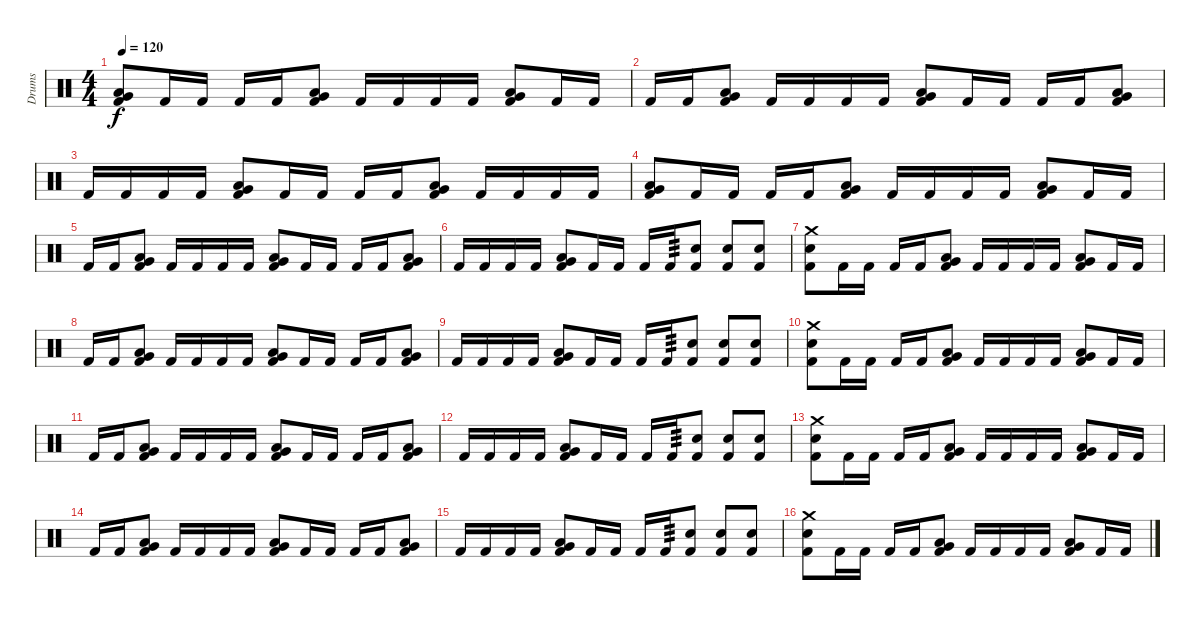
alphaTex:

\track ("Drums" "Drums") {instrument percussion}
\staff {score}
\articulation defaults
\ts (4 4)
\tempo 120
\clef neutral
\ks c
("Low Floor Tom (hit)" "Very Low Tom (hit)" "Kick (hit) 2").8{dy f volume 3} "Kick (hit) 2".16 "Kick (hit) 2".16 "Kick (hit) 2".16 "Kick (hit) 2".16 ("Low Floor Tom (hit)" "Very Low Tom (hit)" "Kick (hit) 2").8 "Kick (hit) 2".16 "Kick (hit) 2".16 "Kick (hit) 2".16 "Kick (hit) 2".16 ("Low Floor Tom (hit)" "Very Low Tom (hit)" "Kick (hit) 2").8 "Kick (hit) 2".16 "Kick (hit) 2".16 |
"Kick (hit) 2".16{volume 4} "Kick (hit) 2".16 ("Low Floor Tom (hit)" "Very Low Tom (hit)" "Kick (hit) 2").8 "Kick (hit) 2".16 "Kick (hit) 2".16 "Kick (hit) 2".16 "Kick (hit) 2".16 ("Low Floor Tom (hit)" "Very Low Tom (hit)" "Kick (hit) 2").8 "Kick (hit) 2".16 "Kick (hit) 2".16 "Kick (hit) 2".16 "Kick (hit) 2".16 ("Low Floor Tom (hit)" "Very Low Tom (hit)" "Kick (hit) 2").8 |
"Kick (hit) 2".16{volume 8} "Kick (hit) 2".16 "Kick (hit) 2".16 "Kick (hit) 2".16 ("Low Floor Tom (hit)" "Very Low Tom (hit)" "Kick (hit) 2").8 "Kick (hit) 2".16 "Kick (hit) 2".16 "Kick (hit) 2".16 "Kick (hit) 2".16 ("Low Floor Tom (hit)" "Very Low Tom (hit)" "Kick (hit) 2").8 "Kick (hit) 2".16 "Kick (hit) 2".16 "Kick (hit) 2".16 "Kick (hit) 2".16 |
("Low Floor Tom (hit)" "Very Low Tom (hit)" "Kick (hit) 2").8{volume 13} "Kick (hit) 2".16 "Kick (hit) 2".16 "Kick (hit) 2".16 "Kick (hit) 2".16 ("Low Floor Tom (hit)" "Very Low Tom (hit)" "Kick (hit) 2").8 "Kick (hit) 2".16 "Kick (hit) 2".16 "Kick (hit) 2".16 "Kick (hit) 2".16 ("Low Floor Tom (hit)" "Very Low Tom (hit)" "Kick (hit) 2").8 "Kick (hit) 2".16 "Kick (hit) 2".16 |
"Kick (hit) 2".16 "Kick (hit) 2".16 ("Low Floor Tom (hit)" "Very Low Tom (hit)" "Kick (hit) 2").8 "Kick (hit) 2".16 "Kick (hit) 2".16 "Kick (hit) 2".16 "Kick (hit) 2".16 ("Low Floor Tom (hit)" "Very Low Tom (hit)" "Kick (hit) 2").8 "Kick (hit) 2".16 "Kick (hit) 2".16 "Kick (hit) 2".16 "Kick (hit) 2".16 ("Low Floor Tom (hit)" "Very Low Tom (hit)" "Kick (hit) 2").8 |
"Kick (hit) 2".16 "Kick (hit) 2".16 "Kick (hit) 2".16 "Kick (hit) 2".16 ("Low Floor Tom (hit)" "Very Low Tom (hit)" "Kick (hit) 2").8 "Kick (hit) 2".16 "Kick (hit) 2".16 "Kick (hit) 2".16 "Kick (hit) 2".16{tp 3} ("Snare (hit) 2" "Kick (hit) 2").8 ("Snare (hit) 2" "Kick (hit) 2").8 ("Snare (hit) 2" "Kick (hit) 2").8 |
("Crash medium (hit)" "Snare (hit) 2" "Kick (hit) 2").8 "Kick (hit) 2".16 "Kick (hit) 2".16 "Kick (hit) 2".16 "Kick (hit) 2".16 ("Low Floor Tom (hit)" "Very Low Tom (hit)" "Kick (hit) 2").8 "Kick (hit) 2".16 "Kick (hit) 2".16 "Kick (hit) 2".16 "Kick (hit) 2".16 ("Low Floor Tom (hit)" "Very Low Tom (hit)" "Kick (hit) 2").8 "Kick (hit) 2".16 "Kick (hit) 2".16 |
"Kick (hit) 2".16 "Kick (hit) 2".16 ("Low Floor Tom (hit)" "Very Low Tom (hit)" "Kick (hit) 2").8 "Kick (hit) 2".16 "Kick (hit) 2".16 "Kick (hit) 2".16 "Kick (hit) 2".16 ("Low Floor Tom (hit)" "Very Low Tom (hit)" "Kick (hit) 2").8 "Kick (hit) 2".16 "Kick (hit) 2".16 "Kick (hit) 2".16 "Kick (hit) 2".16 ("Low Floor Tom (hit)" "Very Low Tom (hit)" "Kick (hit) 2").8 |
"Kick (hit) 2".16 "Kick (hit) 2".16 "Kick (hit) 2".16 "Kick (hit) 2".16 ("Low Floor Tom (hit)" "Very Low Tom (hit)" "Kick (hit) 2").8 "Kick (hit) 2".16 "Kick (hit) 2".16 "Kick (hit) 2".16 "Kick (hit) 2".16{tp 3} ("Snare (hit) 2" "Kick (hit) 2").8 ("Snare (hit) 2" "Kick (hit) 2").8 ("Snare (hit) 2" "Kick (hit) 2").8 |
("Crash medium (hit)" "Snare (hit) 2" "Kick (hit) 2").8 "Kick (hit) 2".16 "Kick (hit) 2".16 "Kick (hit) 2".16 "Kick (hit) 2".16 ("Low Floor Tom (hit)" "Very Low Tom (hit)" "Kick (hit) 2").8 "Kick (hit) 2".16 "Kick (hit) 2".16 "Kick (hit) 2".16 "Kick (hit) 2".16 ("Low Floor Tom (hit)" "Very Low Tom (hit)" "Kick (hit) 2").8 "Kick (hit) 2".16 "Kick (hit) 2".16 |
"Kick (hit) 2".16 "Kick (hit) 2".16 ("Low Floor Tom (hit)" "Very Low Tom (hit)" "Kick (hit) 2").8 "Kick (hit) 2".16 "Kick (hit) 2".16 "Kick (hit) 2".16 "Kick (hit) 2".16 ("Low Floor Tom (hit)" "Very Low Tom (hit)" "Kick (hit) 2").8 "Kick (hit) 2".16 "Kick (hit) 2".16 "Kick (hit) 2".16 "Kick (hit) 2".16 ("Low Floor Tom (hit)" "Very Low Tom (hit)" "Kick (hit) 2").8 |
"Kick (hit) 2".16 "Kick (hit) 2".16 "Kick (hit) 2".16 "Kick (hit) 2".16 ("Low Floor Tom (hit)" "Very Low Tom (hit)" "Kick (hit) 2").8 "Kick (hit) 2".16 "Kick (hit) 2".16 "Kick (hit) 2".16 "Kick (hit) 2".16{tp 3} ("Snare (hit) 2" "Kick (hit) 2").8 ("Snare (hit) 2" "Kick (hit) 2").8 ("Snare (hit) 2" "Kick (hit) 2").8 |
("Crash medium (hit)" "Snare (hit) 2" "Kick (hit) 2").8 "Kick (hit) 2".16 "Kick (hit) 2".16 "Kick (hit) 2".16 "Kick (hit) 2".16 ("Low Floor Tom (hit)" "Very Low Tom (hit)" "Kick (hit) 2").8 "Kick (hit) 2".16 "Kick (hit) 2".16 "Kick (hit) 2".16 "Kick (hit) 2".16 ("Low Floor Tom (hit)" "Very Low Tom (hit)" "Kick (hit) 2").8 "Kick (hit) 2".16 "Kick (hit) 2".16 |
"Kick (hit) 2".16 "Kick (hit) 2".16 ("Low Floor Tom (hit)" "Very Low Tom (hit)" "Kick (hit) 2").8 "Kick (hit) 2".16 "Kick (hit) 2".16 "Kick (hit) 2".16 "Kick (hit) 2".16 ("Low Floor Tom (hit)" "Very Low Tom (hit)" "Kick (hit) 2").8 "Kick (hit) 2".16 "Kick (hit) 2".16 "Kick (hit) 2".16 "Kick (hit) 2".16 ("Low Floor Tom (hit)" "Very Low Tom (hit)" "Kick (hit) 2").8 |
"Kick (hit) 2".16 "Kick (hit) 2".16 "Kick (hit) 2".16 "Kick (hit) 2".16 ("Low Floor Tom (hit)" "Very Low Tom (hit)" "Kick (hit) 2").8 "Kick (hit) 2".16 "Kick (hit) 2".16 "Kick (hit) 2".16 "Kick (hit) 2".16{tp 3} ("Snare (hit) 2" "Kick (hit) 2").8 ("Snare (hit) 2" "Kick (hit) 2").8 ("Snare (hit) 2" "Kick (hit) 2").8 |
("Crash medium (hit)" "Snare (hit) 2" "Kick (hit) 2").8 "Kick (hit) 2".16 "Kick (hit) 2".16 "Kick (hit) 2".16 "Kick (hit) 2".16 ("Low Floor Tom (hit)" "Very Low Tom (hit)" "Kick (hit) 2").8 "Kick (hit) 2".16 "Kick (hit) 2".16 "Kick (hit) 2".16 "Kick (hit) 2".16 ("Low Floor Tom (hit)" "Very Low Tom (hit)" "Kick (hit) 2").8 "Kick (hit) 2".16 "Kick (hit) 2".16
